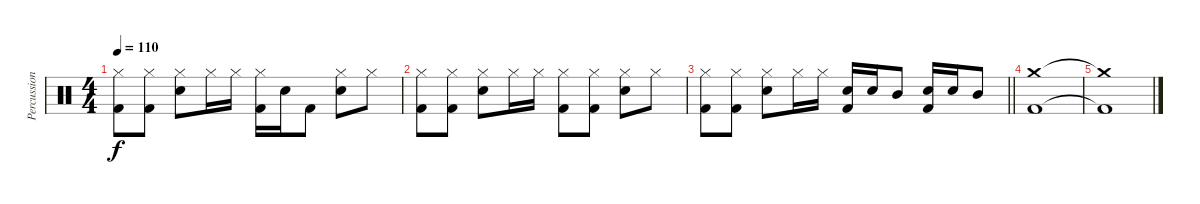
\track ("Percussion" "Percussion") {instrument percussion}
\staff {score}
\articulation defaults
\ts (4 4)
\tempo 110
\clef neutral
\ks c
("Kick (hit) 2" "Hi-Hat (closed)").8{dy f} ("Kick (hit) 2" "Hi-Hat (closed)").8 ("Electric Snare (hit)" "Hi-Hat (closed)").8 "Hi-Hat (closed)".16 "Hi-Hat (closed)".16 ("Kick (hit) 2" "Hi-Hat (closed)").16 "Electric Snare (hit)".16 "Kick (hit) 2".8 ("Electric Snare (hit)" "Hi-Hat (closed)").8 "Hi-Hat (closed)".8 |
("Kick (hit) 2" "Hi-Hat (closed)").8 ("Kick (hit) 2" "Hi-Hat (closed)").8 ("Electric Snare (hit)" "Hi-Hat (closed)").8 "Hi-Hat (closed)".16 "Hi-Hat (closed)".16 ("Kick (hit) 2" "Hi-Hat (closed)").8 ("Kick (hit) 2" "Hi-Hat (closed)").8 ("Electric Snare (hit)" "Hi-Hat (closed)").8 "Hi-Hat (closed)".8 |
\barLineRight lightlight
("Kick (hit) 2" "Hi-Hat (closed)").8 ("Kick (hit) 2" "Hi-Hat (closed)").8 ("Electric Snare (hit)" "Hi-Hat (closed)").8 "Hi-Hat (closed)".16 "Hi-Hat (closed)".16 ("Kick (hit) 2" "Electric Snare (hit)").16 "Electric Snare (hit)".16 "Mid Tom (hit)".8 ("Electric Snare (hit)" "Kick (hit) 2").16 "Electric Snare (hit)".16 "Mid Tom (hit)".8 |
("Kick (hit) 2" "Crash medium (hit)").1 |
("Kick (hit) 2"{t} "Crash medium (hit)"{t}).1
